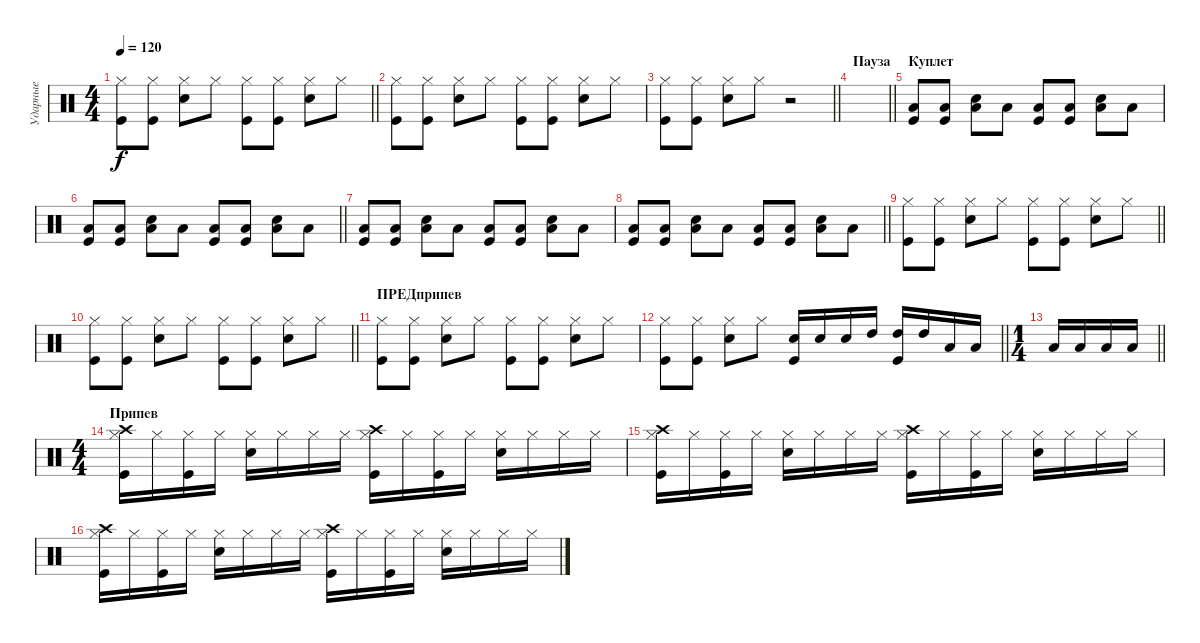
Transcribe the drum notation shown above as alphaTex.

\track ("Ударные" "Ударные") {instrument percussion}
\staff {score}
\articulation defaults
\ts (4 4)
\tempo 120
\clef neutral
\barLineRight lightlight
\ks c
("Kick (hit)" "Hi-Hat (closed)").8{dy f} ("Kick (hit)" "Hi-Hat (closed)").8 ("Snare (hit) 2" "Hi-Hat (closed)").8 "Hi-Hat (closed)".8 ("Kick (hit)" "Hi-Hat (closed)").8 ("Kick (hit)" "Hi-Hat (closed)").8 ("Snare (hit) 2" "Hi-Hat (closed)").8 "Hi-Hat (closed)".8 |
("Kick (hit)" "Hi-Hat (closed)").8 ("Kick (hit)" "Hi-Hat (closed)").8 ("Snare (hit) 2" "Hi-Hat (closed)").8 "Hi-Hat (closed)".8 ("Kick (hit)" "Hi-Hat (closed)").8 ("Kick (hit)" "Hi-Hat (closed)").8 ("Snare (hit) 2" "Hi-Hat (closed)").8 "Hi-Hat (closed)".8 |
\barLineRight lightlight
("Kick (hit)" "Hi-Hat (closed)").8 ("Kick (hit)" "Hi-Hat (closed)").8 ("Snare (hit) 2" "Hi-Hat (closed)").8 "Hi-Hat (closed)".8 r.2 |
\section ("" "Пауза")
\barLineRight lightlight
|
\section ("" "Куплет")
("Kick (hit)" "Low Floor Tom (hit)").8 ("Kick (hit)" "Low Floor Tom (hit)").8 ("Snare (hit) 2" "Low Floor Tom (hit)").8 "Low Floor Tom (hit)".8 ("Kick (hit)" "Low Floor Tom (hit)").8 ("Kick (hit)" "Low Floor Tom (hit)").8 ("Snare (hit) 2" "Low Floor Tom (hit)").8 "Low Floor Tom (hit)".8 |
\barLineRight lightlight
("Kick (hit)" "Low Floor Tom (hit)").8 ("Kick (hit)" "Low Floor Tom (hit)").8 ("Snare (hit) 2" "Low Floor Tom (hit)").8 "Low Floor Tom (hit)".8 ("Kick (hit)" "Low Floor Tom (hit)").8 ("Kick (hit)" "Low Floor Tom (hit)").8 ("Snare (hit) 2" "Low Floor Tom (hit)").8 "Low Floor Tom (hit)".8 |
("Kick (hit)" "Low Floor Tom (hit)").8 ("Kick (hit)" "Low Floor Tom (hit)").8 ("Snare (hit) 2" "Low Floor Tom (hit)").8 "Low Floor Tom (hit)".8 ("Kick (hit)" "Low Floor Tom (hit)").8 ("Kick (hit)" "Low Floor Tom (hit)").8 ("Snare (hit) 2" "Low Floor Tom (hit)").8 "Low Floor Tom (hit)".8 |
\barLineRight lightlight
("Kick (hit)" "Low Floor Tom (hit)").8 ("Kick (hit)" "Low Floor Tom (hit)").8 ("Snare (hit) 2" "Low Floor Tom (hit)").8 "Low Floor Tom (hit)".8 ("Kick (hit)" "Low Floor Tom (hit)").8 ("Kick (hit)" "Low Floor Tom (hit)").8 ("Snare (hit) 2" "Low Floor Tom (hit)").8 "Low Floor Tom (hit)".8 |
\barLineRight lightlight
("Kick (hit)" "Hi-Hat (closed)").8 ("Kick (hit)" "Hi-Hat (closed)").8 ("Snare (hit) 2" "Hi-Hat (closed)").8 "Hi-Hat (closed)".8 ("Kick (hit)" "Hi-Hat (closed)").8 ("Kick (hit)" "Hi-Hat (closed)").8 ("Snare (hit) 2" "Hi-Hat (closed)").8 "Hi-Hat (closed)".8 |
\barLineRight lightlight
("Kick (hit)" "Hi-Hat (closed)").8 ("Kick (hit)" "Hi-Hat (closed)").8 ("Snare (hit) 2" "Hi-Hat (closed)").8 "Hi-Hat (closed)".8 ("Kick (hit)" "Hi-Hat (closed)").8 ("Kick (hit)" "Hi-Hat (closed)").8 ("Snare (hit) 2" "Hi-Hat (closed)").8 "Hi-Hat (closed)".8 |
\section ("" "ПРЕДприпев")
("Kick (hit)" "Hi-Hat (closed)").8 ("Kick (hit)" "Hi-Hat (closed)").8 ("Snare (hit) 2" "Hi-Hat (closed)").8 "Hi-Hat (closed)".8 ("Kick (hit)" "Hi-Hat (closed)").8 ("Kick (hit)" "Hi-Hat (closed)").8 ("Snare (hit) 2" "Hi-Hat (closed)").8 "Hi-Hat (closed)".8 |
\barLineRight lightlight
("Kick (hit)" "Hi-Hat (closed)").8 ("Kick (hit)" "Hi-Hat (closed)").8 ("Snare (hit) 2" "Hi-Hat (closed)").8 "Hi-Hat (closed)".8 ("Snare (hit) 2" "Kick (hit)").16 "Snare (hit) 2".16 "Snare (hit) 2".16 "High Tom (hit)".16 ("High Tom (hit)" "Kick (hit)").16 "High Tom (hit)".16 "Low Tom (hit)".16 "Low Tom (hit)".16 |
\ts (1 4)
\barLineRight lightlight "Low Tom (hit)".16 "Low Floor Tom (hit)".16 "Low Floor Tom (hit)".16 "Low Floor Tom (hit)".16
|
\ts (4 4)
\section ("" "Припев")
("Hi-Hat (closed)" "Kick (hit)" "Crash high (hit)").16 "Hi-Hat (closed)".16 ("Hi-Hat (closed)" "Kick (hit)").16 "Hi-Hat (closed)".16 ("Hi-Hat (closed)" "Snare (hit) 2").16 "Hi-Hat (closed)".16 "Hi-Hat (closed)".16 "Hi-Hat (closed)".16 ("Hi-Hat (closed)" "Kick (hit)" "Crash high (hit)").16 "Hi-Hat (closed)".16 ("Hi-Hat (closed)" "Kick (hit)").16 "Hi-Hat (closed)".16 ("Hi-Hat (closed)" "Snare (hit) 2").16 "Hi-Hat (closed)".16 "Hi-Hat (closed)".16 "Hi-Hat (closed)".16 |
("Hi-Hat (closed)" "Kick (hit)" "Crash high (hit)").16 "Hi-Hat (closed)".16 ("Hi-Hat (closed)" "Kick (hit)").16 "Hi-Hat (closed)".16 ("Hi-Hat (closed)" "Snare (hit) 2").16 "Hi-Hat (closed)".16 "Hi-Hat (closed)".16 "Hi-Hat (closed)".16 ("Hi-Hat (closed)" "Kick (hit)" "Crash high (hit)").16 "Hi-Hat (closed)".16 ("Hi-Hat (closed)" "Kick (hit)").16 "Hi-Hat (closed)".16 ("Hi-Hat (closed)" "Snare (hit) 2").16 "Hi-Hat (closed)".16 "Hi-Hat (closed)".16 "Hi-Hat (closed)".16 |
("Hi-Hat (closed)" "Kick (hit)" "Crash high (hit)").16 "Hi-Hat (closed)".16 ("Hi-Hat (closed)" "Kick (hit)").16 "Hi-Hat (closed)".16 ("Hi-Hat (closed)" "Snare (hit) 2").16 "Hi-Hat (closed)".16 "Hi-Hat (closed)".16 "Hi-Hat (closed)".16 ("Hi-Hat (closed)" "Kick (hit)" "Crash high (hit)").16 "Hi-Hat (closed)".16 ("Hi-Hat (closed)" "Kick (hit)").16 "Hi-Hat (closed)".16 ("Hi-Hat (closed)" "Snare (hit) 2").16 "Hi-Hat (closed)".16 "Hi-Hat (closed)".16 "Hi-Hat (closed)".16
